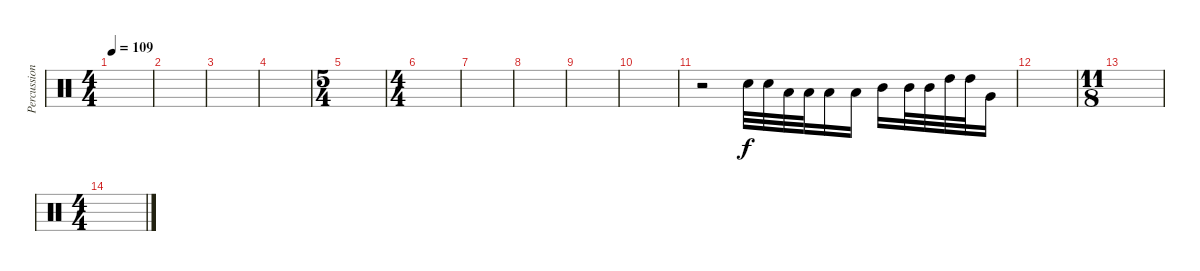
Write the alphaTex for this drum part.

\track ("Percussions" "Percussion") {instrument percussion}
\staff {score}
\articulation defaults
\ts (4 4)
\tempo 109
\clef neutral
\ks c
|
|
|
|
\ts (5 4)
|
\ts (4 4)
|
|
|
|
|
r.2 "Electric Snare (hit)".32 "Electric Snare (hit)".32 "Low Tom (hit)".32 "Low Tom (hit)".32 "Low Tom (hit)".16 "Low Tom (hit)".16 "Mid Tom (hit)".16 "Mid Tom (hit)".32 "Mid Tom (hit)".32 "High Tom (hit)".32 "High Tom (hit)".32 "Very Low Tom (hit)".16 |
|
\ts (11 8)
|
\ts (4 4)
